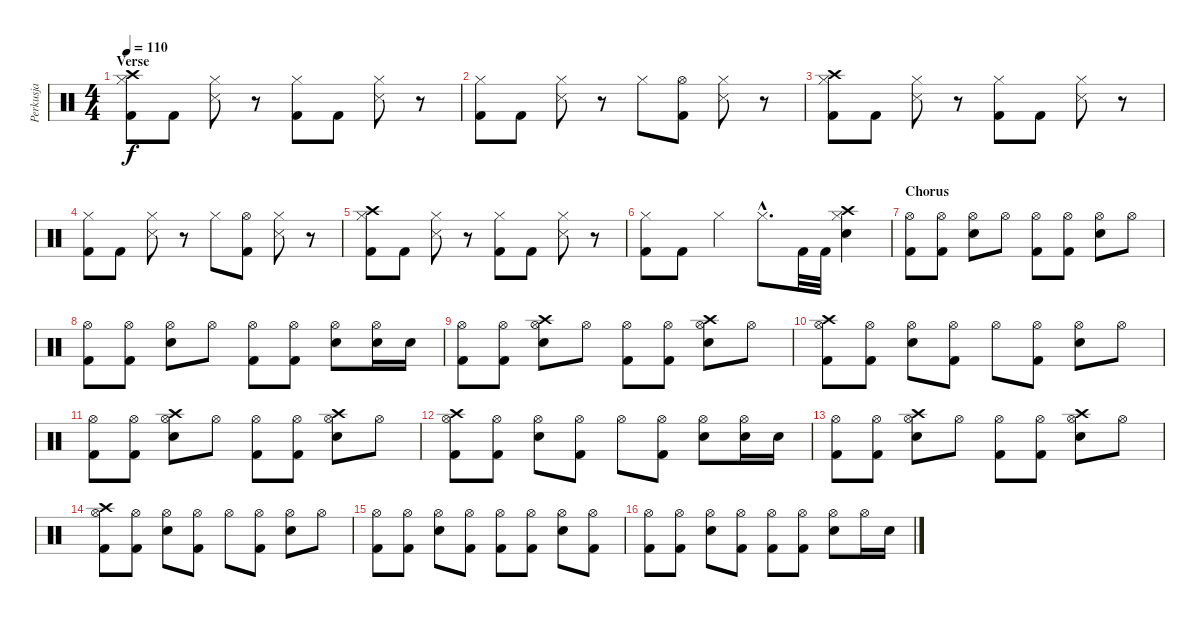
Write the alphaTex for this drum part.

\track ("Perkusja" "Perkusja") {instrument percussion}
\staff {score}
\articulation defaults
\ts (4 4)
\section ("" "Verse")
\tempo 110
\clef neutral
\ks c
("Hi-Hat (closed)" "Kick (hit) 2" "Crash high (hit)").8{dy f} "Kick (hit) 2".8 ("Hi-Hat (closed)" "Snare (side stick) 3").8 r.8 ("Hi-Hat (closed)" "Kick (hit) 2").8 "Kick (hit) 2".8 ("Hi-Hat (closed)" "Snare (side stick) 3").8 r.8 |
("Hi-Hat (closed)" "Kick (hit) 2").8 "Kick (hit) 2".8 ("Hi-Hat (closed)" "Snare (side stick) 3").8 r.8 "Hi-Hat (closed)".8 ("Hi-Hat (open)" "Kick (hit) 2").8 ("Hi-Hat (closed)" "Snare (side stick) 3").8 r.8 |
("Hi-Hat (closed)" "Kick (hit) 2" "Crash high (hit)").8 "Kick (hit) 2".8 ("Hi-Hat (closed)" "Snare (side stick) 3").8 r.8 ("Hi-Hat (closed)" "Kick (hit) 2").8 "Kick (hit) 2".8 ("Hi-Hat (closed)" "Snare (side stick) 3").8 r.8 |
("Hi-Hat (closed)" "Kick (hit) 2").8 "Kick (hit) 2".8 ("Hi-Hat (closed)" "Snare (side stick) 3").8 r.8 "Hi-Hat (closed)".8 ("Hi-Hat (open)" "Kick (hit) 2").8 ("Hi-Hat (closed)" "Snare (side stick) 3").8 r.8 |
("Hi-Hat (closed)" "Kick (hit) 2" "Crash high (hit)").8 "Kick (hit) 2".8 ("Hi-Hat (closed)" "Snare (side stick) 3").8 r.8 ("Hi-Hat (closed)" "Kick (hit) 2").8 "Kick (hit) 2".8 ("Hi-Hat (closed)" "Snare (side stick) 3").8 r.8 |
("Hi-Hat (closed)" "Kick (hit) 2").8 "Kick (hit) 2".8 "Hi-Hat (closed)".4 "Hi-Hat (closed)"{hac}.8{d} "Kick (hit) 2".32 "Kick (hit) 2".32 ("Hi-Hat (closed)" "Snare (hit) 2" "Crash high (hit)").4 |
\section ("" "Chorus")
("Hi-Hat (open)" "Kick (hit) 2").8 ("Hi-Hat (open)" "Kick (hit) 2").8 ("Hi-Hat (open)" "Snare (hit) 2").8 "Hi-Hat (open)".8 ("Hi-Hat (open)" "Kick (hit) 2").8 ("Hi-Hat (open)" "Kick (hit) 2").8 ("Hi-Hat (open)" "Snare (hit) 2").8 "Hi-Hat (open)".8 |
("Hi-Hat (open)" "Kick (hit) 2").8 ("Hi-Hat (open)" "Kick (hit) 2").8 ("Hi-Hat (open)" "Snare (hit) 2").8 "Hi-Hat (open)".8 ("Hi-Hat (open)" "Kick (hit) 2").8 ("Hi-Hat (open)" "Kick (hit) 2").8 ("Hi-Hat (open)" "Snare (hit) 2").8 ("Hi-Hat (open)" "Snare (hit) 2").16 "Snare (hit) 2".16 |
("Hi-Hat (open)" "Kick (hit) 2").8 ("Hi-Hat (open)" "Kick (hit) 2").8 ("Hi-Hat (open)" "Snare (hit) 2" "Crash high (hit)").8 "Hi-Hat (open)".8 ("Hi-Hat (open)" "Kick (hit) 2").8 ("Hi-Hat (open)" "Kick (hit) 2").8 ("Hi-Hat (open)" "Snare (hit) 2" "Crash high (hit)").8 "Hi-Hat (open)".8 |
("Hi-Hat (open)" "Kick (hit) 2" "Crash high (hit)").8 ("Hi-Hat (open)" "Kick (hit) 2").8 ("Hi-Hat (open)" "Snare (hit) 2").8 ("Hi-Hat (open)" "Kick (hit) 2").8 "Hi-Hat (open)".8 ("Hi-Hat (open)" "Kick (hit) 2").8 ("Hi-Hat (open)" "Snare (hit) 2").8 "Hi-Hat (open)".8 |
("Hi-Hat (open)" "Kick (hit) 2").8 ("Hi-Hat (open)" "Kick (hit) 2").8 ("Hi-Hat (open)" "Snare (hit) 2" "Crash high (hit)").8 "Hi-Hat (open)".8 ("Hi-Hat (open)" "Kick (hit) 2").8 ("Hi-Hat (open)" "Kick (hit) 2").8 ("Hi-Hat (open)" "Snare (hit) 2" "Crash high (hit)").8 "Hi-Hat (open)".8 |
("Hi-Hat (open)" "Kick (hit) 2" "Crash high (hit)").8 ("Hi-Hat (open)" "Kick (hit) 2").8 ("Hi-Hat (open)" "Snare (hit) 2").8 ("Hi-Hat (open)" "Kick (hit) 2").8 "Hi-Hat (open)".8 ("Hi-Hat (open)" "Kick (hit) 2").8 ("Hi-Hat (open)" "Snare (hit) 2").8 ("Hi-Hat (open)" "Snare (hit) 2").16 "Snare (hit) 2".16 |
("Hi-Hat (open)" "Kick (hit) 2").8 ("Hi-Hat (open)" "Kick (hit) 2").8 ("Hi-Hat (open)" "Snare (hit) 2" "Crash high (hit)").8 "Hi-Hat (open)".8 ("Hi-Hat (open)" "Kick (hit) 2").8 ("Hi-Hat (open)" "Kick (hit) 2").8 ("Hi-Hat (open)" "Snare (hit) 2" "Crash high (hit)").8 "Hi-Hat (open)".8 |
("Hi-Hat (open)" "Kick (hit) 2" "Crash high (hit)").8 ("Hi-Hat (open)" "Kick (hit) 2").8 ("Hi-Hat (open)" "Snare (hit) 2").8 ("Hi-Hat (open)" "Kick (hit) 2").8 "Hi-Hat (open)".8 ("Hi-Hat (open)" "Kick (hit) 2").8 ("Hi-Hat (open)" "Snare (hit) 2").8 "Hi-Hat (open)".8 |
("Hi-Hat (open)" "Kick (hit) 2").8 ("Hi-Hat (open)" "Kick (hit) 2").8 ("Hi-Hat (open)" "Snare (hit) 2").8 ("Hi-Hat (open)" "Kick (hit) 2").8 ("Hi-Hat (open)" "Kick (hit) 2").8 ("Hi-Hat (open)" "Kick (hit) 2").8 ("Hi-Hat (open)" "Snare (hit) 2").8 ("Hi-Hat (open)" "Kick (hit) 2").8 |
("Hi-Hat (open)" "Kick (hit) 2").8 ("Hi-Hat (open)" "Kick (hit) 2").8 ("Hi-Hat (open)" "Snare (hit) 2").8 ("Hi-Hat (open)" "Kick (hit) 2").8 ("Hi-Hat (open)" "Kick (hit) 2").8 ("Hi-Hat (open)" "Kick (hit) 2").8 ("Hi-Hat (open)" "Snare (hit) 2").8 "Hi-Hat (open)".16 "Snare (hit) 2".16
